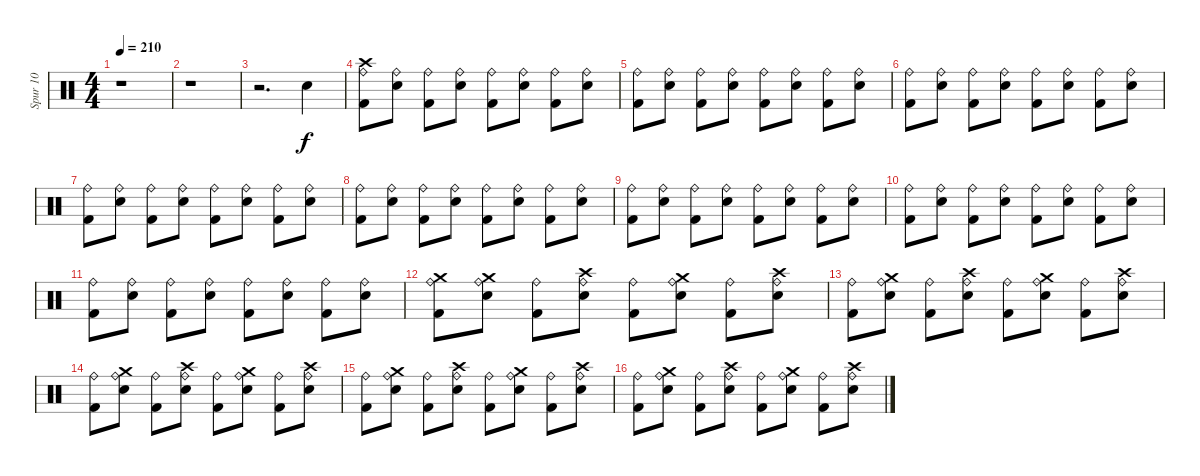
\track ("Spur 10" "Spur 10") {instrument percussion}
\staff {score}
\articulation defaults
\ts (4 4)
\tempo 210
\clef neutral
\ks c
r.1{dy f} |
r.1 |
r.2{d} "Electric Snare (hit)".4 |
("Crash high (hit)" "Ride (bell)" "Kick (hit) 2").8 ("Ride (bell)" "Electric Snare (hit)").8 ("Ride (bell)" "Kick (hit) 2").8 ("Ride (bell)" "Electric Snare (hit)").8 ("Ride (bell)" "Kick (hit) 2").8 ("Ride (bell)" "Electric Snare (hit)").8 ("Ride (bell)" "Kick (hit) 2").8 ("Ride (bell)" "Electric Snare (hit)").8 |
("Ride (bell)" "Kick (hit) 2").8 ("Ride (bell)" "Electric Snare (hit)").8 ("Ride (bell)" "Kick (hit) 2").8 ("Ride (bell)" "Electric Snare (hit)").8 ("Ride (bell)" "Kick (hit) 2").8 ("Ride (bell)" "Electric Snare (hit)").8 ("Ride (bell)" "Kick (hit) 2").8 ("Ride (bell)" "Electric Snare (hit)").8 |
("Ride (bell)" "Kick (hit) 2").8 ("Ride (bell)" "Electric Snare (hit)").8 ("Ride (bell)" "Kick (hit) 2").8 ("Ride (bell)" "Electric Snare (hit)").8 ("Ride (bell)" "Kick (hit) 2").8 ("Ride (bell)" "Electric Snare (hit)").8 ("Ride (bell)" "Kick (hit) 2").8 ("Ride (bell)" "Electric Snare (hit)").8 |
("Ride (bell)" "Kick (hit) 2").8 ("Ride (bell)" "Electric Snare (hit)").8 ("Ride (bell)" "Kick (hit) 2").8 ("Ride (bell)" "Electric Snare (hit)").8 ("Ride (bell)" "Kick (hit) 2").8 ("Ride (bell)" "Electric Snare (hit)").8 ("Ride (bell)" "Kick (hit) 2").8 ("Ride (bell)" "Electric Snare (hit)").8 |
("Ride (bell)" "Kick (hit) 2").8 ("Ride (bell)" "Electric Snare (hit)").8 ("Ride (bell)" "Kick (hit) 2").8 ("Ride (bell)" "Electric Snare (hit)").8 ("Ride (bell)" "Kick (hit) 2").8 ("Ride (bell)" "Electric Snare (hit)").8 ("Ride (bell)" "Kick (hit) 2").8 ("Ride (bell)" "Electric Snare (hit)").8 |
("Ride (bell)" "Kick (hit) 2").8 ("Ride (bell)" "Electric Snare (hit)").8 ("Ride (bell)" "Kick (hit) 2").8 ("Ride (bell)" "Electric Snare (hit)").8 ("Ride (bell)" "Kick (hit) 2").8 ("Ride (bell)" "Electric Snare (hit)").8 ("Ride (bell)" "Kick (hit) 2").8 ("Ride (bell)" "Electric Snare (hit)").8 |
("Ride (bell)" "Kick (hit) 2").8 ("Ride (bell)" "Electric Snare (hit)").8 ("Ride (bell)" "Kick (hit) 2").8 ("Ride (bell)" "Electric Snare (hit)").8 ("Ride (bell)" "Kick (hit) 2").8 ("Ride (bell)" "Electric Snare (hit)").8 ("Ride (bell)" "Kick (hit) 2").8 ("Ride (bell)" "Electric Snare (hit)").8 |
("Ride (bell)" "Kick (hit) 2").8 ("Ride (bell)" "Electric Snare (hit)").8 ("Ride (bell)" "Kick (hit) 2").8 ("Ride (bell)" "Electric Snare (hit)").8 ("Ride (bell)" "Kick (hit) 2").8 ("Ride (bell)" "Electric Snare (hit)").8 ("Ride (bell)" "Kick (hit) 2").8 ("Ride (bell)" "Electric Snare (hit)").8 |
("Crash medium (hit)" "Ride (bell)" "Kick (hit) 2").8 ("Crash medium (hit)" "Ride (bell)" "Electric Snare (hit)").8 ("Ride (bell)" "Kick (hit) 2").8 ("Crash high (hit)" "Ride (bell)" "Electric Snare (hit)").8 ("Ride (bell)" "Kick (hit) 2").8 ("Crash medium (hit)" "Ride (bell)" "Electric Snare (hit)").8 ("Ride (bell)" "Kick (hit) 2").8 ("Crash high (hit)" "Ride (bell)" "Electric Snare (hit)").8 |
("Ride (bell)" "Kick (hit) 2").8 ("Crash medium (hit)" "Ride (bell)" "Electric Snare (hit)").8 ("Ride (bell)" "Kick (hit) 2").8 ("Crash high (hit)" "Ride (bell)" "Electric Snare (hit)").8 ("Ride (bell)" "Kick (hit) 2").8 ("Crash medium (hit)" "Ride (bell)" "Electric Snare (hit)").8 ("Ride (bell)" "Kick (hit) 2").8 ("Crash high (hit)" "Ride (bell)" "Electric Snare (hit)").8 |
("Ride (bell)" "Kick (hit) 2").8 ("Crash medium (hit)" "Ride (bell)" "Electric Snare (hit)").8 ("Ride (bell)" "Kick (hit) 2").8 ("Crash high (hit)" "Ride (bell)" "Electric Snare (hit)").8 ("Ride (bell)" "Kick (hit) 2").8 ("Crash medium (hit)" "Ride (bell)" "Electric Snare (hit)").8 ("Ride (bell)" "Kick (hit) 2").8 ("Crash high (hit)" "Ride (bell)" "Electric Snare (hit)").8 |
("Ride (bell)" "Kick (hit) 2").8 ("Crash medium (hit)" "Ride (bell)" "Electric Snare (hit)").8 ("Ride (bell)" "Kick (hit) 2").8 ("Crash high (hit)" "Ride (bell)" "Electric Snare (hit)").8 ("Ride (bell)" "Kick (hit) 2").8 ("Crash medium (hit)" "Ride (bell)" "Electric Snare (hit)").8 ("Ride (bell)" "Kick (hit) 2").8 ("Crash high (hit)" "Ride (bell)" "Electric Snare (hit)").8 |
("Ride (bell)" "Kick (hit) 2").8 ("Crash medium (hit)" "Ride (bell)" "Electric Snare (hit)").8 ("Ride (bell)" "Kick (hit) 2").8 ("Crash high (hit)" "Ride (bell)" "Electric Snare (hit)").8 ("Ride (bell)" "Kick (hit) 2").8 ("Crash medium (hit)" "Ride (bell)" "Electric Snare (hit)").8 ("Ride (bell)" "Kick (hit) 2").8 ("Crash high (hit)" "Ride (bell)" "Electric Snare (hit)").8
